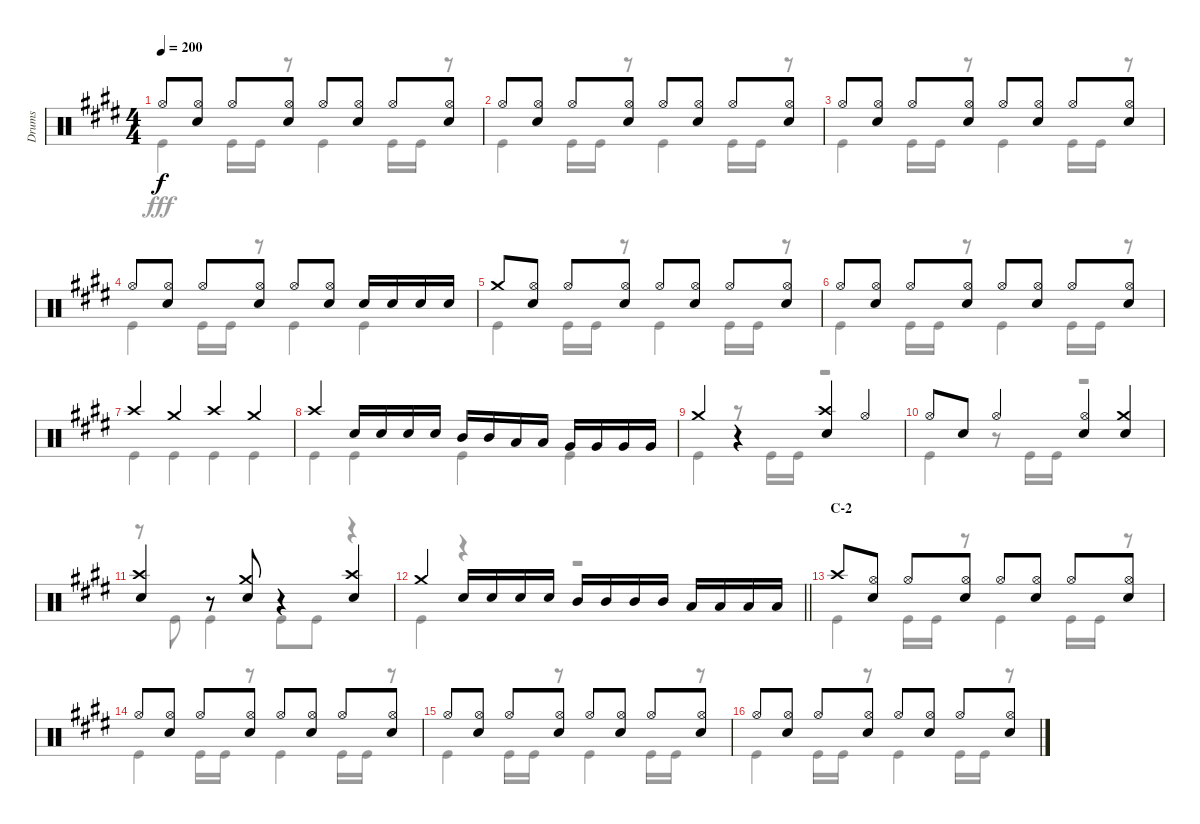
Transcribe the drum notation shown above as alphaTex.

\track ("Drums" "Drums") {instrument percussion}
\staff {score}
\articulation defaults
\voice
\ts (4 4)
\tempo 200
\clef neutral
\ks e "Hi-Hat (open)".8{dy f}
("Hi-Hat (open)" "Snare (hit) 2").8 "Hi-Hat (open)".8 ("Hi-Hat (open)" "Snare (hit) 2").8 "Hi-Hat (open)".8 ("Hi-Hat (open)" "Snare (hit) 2").8 "Hi-Hat (open)".8 ("Hi-Hat (open)" "Snare (hit) 2").8 |
"Hi-Hat (open)".8 ("Hi-Hat (open)" "Snare (hit) 2").8 "Hi-Hat (open)".8 ("Hi-Hat (open)" "Snare (hit) 2").8 "Hi-Hat (open)".8 ("Hi-Hat (open)" "Snare (hit) 2").8 "Hi-Hat (open)".8 ("Hi-Hat (open)" "Snare (hit) 2").8 |
"Hi-Hat (open)".8 ("Hi-Hat (open)" "Snare (hit) 2").8 "Hi-Hat (open)".8 ("Hi-Hat (open)" "Snare (hit) 2").8 "Hi-Hat (open)".8 ("Hi-Hat (open)" "Snare (hit) 2").8 "Hi-Hat (open)".8 ("Hi-Hat (open)" "Snare (hit) 2").8 |
"Hi-Hat (open)".8 ("Hi-Hat (open)" "Snare (hit) 2").8 "Hi-Hat (open)".8 ("Hi-Hat (open)" "Snare (hit) 2").8 "Hi-Hat (open)".8 ("Hi-Hat (open)" "Snare (hit) 2").8 "Snare (hit) 2".16 "Snare (hit) 2".16 "Snare (hit) 2".16 "Snare (hit) 2".16 |
"Crash medium (hit)".8 ("Hi-Hat (open)" "Snare (hit) 2").8 "Hi-Hat (open)".8 ("Hi-Hat (open)" "Snare (hit) 2").8 "Hi-Hat (open)".8 ("Hi-Hat (open)" "Snare (hit) 2").8 "Hi-Hat (open)".8 ("Hi-Hat (open)" "Snare (hit) 2").8 |
"Hi-Hat (open)".8 ("Hi-Hat (open)" "Snare (hit) 2").8 "Hi-Hat (open)".8 ("Hi-Hat (open)" "Snare (hit) 2").8 "Hi-Hat (open)".8 ("Hi-Hat (open)" "Snare (hit) 2").8 "Hi-Hat (open)".8 ("Hi-Hat (open)" "Snare (hit) 2").8 |
"Crash high (hit)".4 "Crash medium (hit)".4 "Crash high (hit)".4 "Crash medium (hit)".4 |
"Crash high (hit)".4 "Snare (hit) 2".16 "Snare (hit) 2".16 "Snare (hit) 2".16 "Snare (hit) 2".16 "Mid Tom (hit)".16 "Mid Tom (hit)".16 "Low Tom (hit)".16 "Low Tom (hit)".16 "Very Low Tom (hit)".16 "Very Low Tom (hit)".16 "Very Low Tom (hit)".16 "Very Low Tom (hit)".16 |
"Crash medium (hit)".4 r.4 ("Crash high (hit)" "Snare (hit) 2").4 "Hi-Hat (open)".4 |
"Hi-Hat (open)".8 "Snare (hit) 2".8 "Hi-Hat (open)".4 ("Hi-Hat (open)" "Snare (hit) 2").4 ("Crash medium (hit)" "Snare (hit) 2").4 |
("Crash high (hit)" "Snare (hit) 2").4 r.8 ("Crash medium (hit)" "Snare (hit) 2").8 r.4 ("Crash high (hit)" "Snare (hit) 2").4 |
\barLineRight lightlight "Crash medium (hit)".4 "Snare (hit) 2".16 "Snare (hit) 2".16 "Snare (hit) 2".16 "Snare (hit) 2".16 "Mid Tom (hit)".16 "Mid Tom (hit)".16 "Mid Tom (hit)".16 "Mid Tom (hit)".16 "Low Tom (hit)".16 "Low Tom (hit)".16 "Low Tom (hit)".16 "Low Tom (hit)".16
|
\section ("" "C-2")
"Crash high (hit)".8 ("Hi-Hat (open)" "Snare (hit) 2").8 "Hi-Hat (open)".8 ("Hi-Hat (open)" "Snare (hit) 2").8 "Hi-Hat (open)".8 ("Hi-Hat (open)" "Snare (hit) 2").8 "Hi-Hat (open)".8 ("Hi-Hat (open)" "Snare (hit) 2").8 |
"Hi-Hat (open)".8 ("Hi-Hat (open)" "Snare (hit) 2").8 "Hi-Hat (open)".8 ("Hi-Hat (open)" "Snare (hit) 2").8 "Hi-Hat (open)".8 ("Hi-Hat (open)" "Snare (hit) 2").8 "Hi-Hat (open)".8 ("Hi-Hat (open)" "Snare (hit) 2").8 |
"Hi-Hat (open)".8 ("Hi-Hat (open)" "Snare (hit) 2").8 "Hi-Hat (open)".8 ("Hi-Hat (open)" "Snare (hit) 2").8 "Hi-Hat (open)".8 ("Hi-Hat (open)" "Snare (hit) 2").8 "Hi-Hat (open)".8 ("Hi-Hat (open)" "Snare (hit) 2").8 |
"Hi-Hat (open)".8 ("Hi-Hat (open)" "Snare (hit) 2").8 "Hi-Hat (open)".8 ("Hi-Hat (open)" "Snare (hit) 2").8 "Hi-Hat (open)".8 ("Hi-Hat (open)" "Snare (hit) 2").8 "Hi-Hat (open)".8 ("Hi-Hat (open)" "Snare (hit) 2").8
\voice
\clef neutral
\ottava regular
\simile none
\ks e "Kick (hit)".4{dy fff} "Kick (hit)".16 "Kick (hit)".16
r.8 "Kick (hit)".4 "Kick (hit)".16 "Kick (hit)".16 r.8 |
"Kick (hit)".4 "Kick (hit)".16 "Kick (hit)".16 r.8 "Kick (hit)".4 "Kick (hit)".16 "Kick (hit)".16 r.8 |
"Kick (hit)".4 "Kick (hit)".16 "Kick (hit)".16 r.8 "Kick (hit)".4 "Kick (hit)".16 "Kick (hit)".16 r.8 |
"Kick (hit)".4 "Kick (hit)".16 "Kick (hit)".16 r.8 "Kick (hit)".4 "Kick (hit)".4 |
"Kick (hit)".4 "Kick (hit)".16 "Kick (hit)".16 r.8 "Kick (hit)".4 "Kick (hit)".16 "Kick (hit)".16 r.8 |
"Kick (hit)".4 "Kick (hit)".16 "Kick (hit)".16 r.8 "Kick (hit)".4 "Kick (hit)".16 "Kick (hit)".16 r.8 |
"Kick (hit)".4 "Kick (hit)".4 "Kick (hit)".4 "Kick (hit)".4 |
"Kick (hit)".4 "Kick (hit)".4 "Kick (hit)".4 "Kick (hit)".4 |
"Kick (hit)".4 r.8 "Kick (hit)".16 "Kick (hit)".16 r.2 |
"Kick (hit)".4 r.8 "Kick (hit)".16 "Kick (hit)".16 r.2 |
r.8 "Kick (hit)".8 "Kick (hit)".4 "Kick (hit)".8 "Kick (hit)".8 r.4 |
\barLineRight lightlight "Kick (hit)".4
r.4 r.2 |
"Kick (hit)".4 "Kick (hit)".16 "Kick (hit)".16 r.8 "Kick (hit)".4 "Kick (hit)".16 "Kick (hit)".16 r.8 |
"Kick (hit)".4 "Kick (hit)".16 "Kick (hit)".16 r.8 "Kick (hit)".4 "Kick (hit)".16 "Kick (hit)".16 r.8 |
"Kick (hit)".4 "Kick (hit)".16 "Kick (hit)".16 r.8 "Kick (hit)".4 "Kick (hit)".16 "Kick (hit)".16 r.8 |
"Kick (hit)".4 "Kick (hit)".16 "Kick (hit)".16 r.8 "Kick (hit)".4 "Kick (hit)".16 "Kick (hit)".16 r.8
